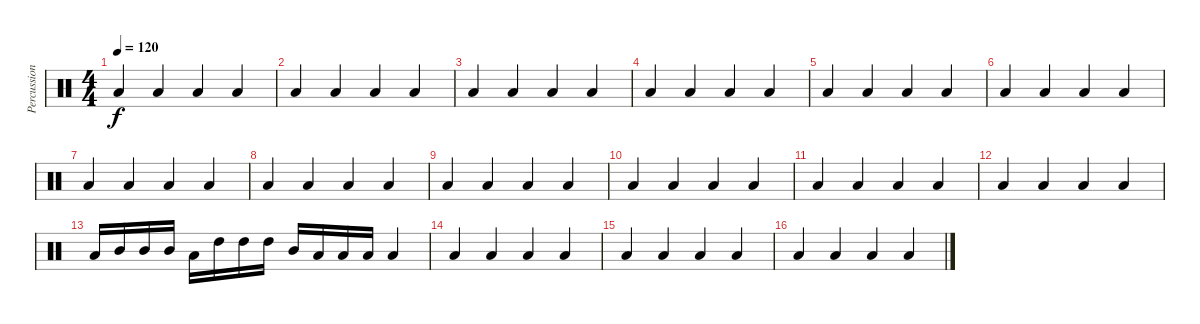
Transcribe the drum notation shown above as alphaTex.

\track ("Percussion" "Percussion") {instrument percussion}
\staff {score}
\articulation defaults
\ts (4 4)
\tempo 120
\clef neutral
\ks c "Low Tom (hit)".4{dy f} "Low Tom (hit)".4 "Low Tom (hit)".4 "Low Tom (hit)".4
|
"Low Tom (hit)".4 "Low Tom (hit)".4 "Low Tom (hit)".4 "Low Tom (hit)".4 |
"Low Tom (hit)".4 "Low Tom (hit)".4 "Low Tom (hit)".4 "Low Tom (hit)".4 |
"Low Tom (hit)".4 "Low Tom (hit)".4 "Low Tom (hit)".4 "Low Tom (hit)".4 |
"Low Tom (hit)".4 "Low Tom (hit)".4 "Low Tom (hit)".4 "Low Tom (hit)".4 |
"Low Tom (hit)".4 "Low Tom (hit)".4 "Low Tom (hit)".4 "Low Tom (hit)".4 |
"Low Tom (hit)".4 "Low Tom (hit)".4 "Low Tom (hit)".4 "Low Tom (hit)".4 |
"Low Tom (hit)".4 "Low Tom (hit)".4 "Low Tom (hit)".4 "Low Tom (hit)".4 |
"Low Tom (hit)".4 "Low Tom (hit)".4 "Low Tom (hit)".4 "Low Tom (hit)".4 |
"Low Tom (hit)".4 "Low Tom (hit)".4 "Low Tom (hit)".4 "Low Tom (hit)".4 |
"Low Tom (hit)".4 "Low Tom (hit)".4 "Low Tom (hit)".4 "Low Tom (hit)".4 |
"Low Tom (hit)".4 "Low Tom (hit)".4 "Low Tom (hit)".4 "Low Tom (hit)".4 |
"Low Tom (hit)".16 "Mid Tom (hit)".16 "Mid Tom (hit)".16 "Mid Tom (hit)".16 "Low Tom (hit)".16 "High Tom (hit)".16 "High Tom (hit)".16 "High Tom (hit)".16 "Mid Tom (hit)".16 "Low Tom (hit)".16 "Low Tom (hit)".16 "Low Tom (hit)".16 "Low Tom (hit)".4 |
"Low Tom (hit)".4 "Low Tom (hit)".4 "Low Tom (hit)".4 "Low Tom (hit)".4 |
"Low Tom (hit)".4 "Low Tom (hit)".4 "Low Tom (hit)".4 "Low Tom (hit)".4 |
"Low Tom (hit)".4 "Low Tom (hit)".4 "Low Tom (hit)".4 "Low Tom (hit)".4
